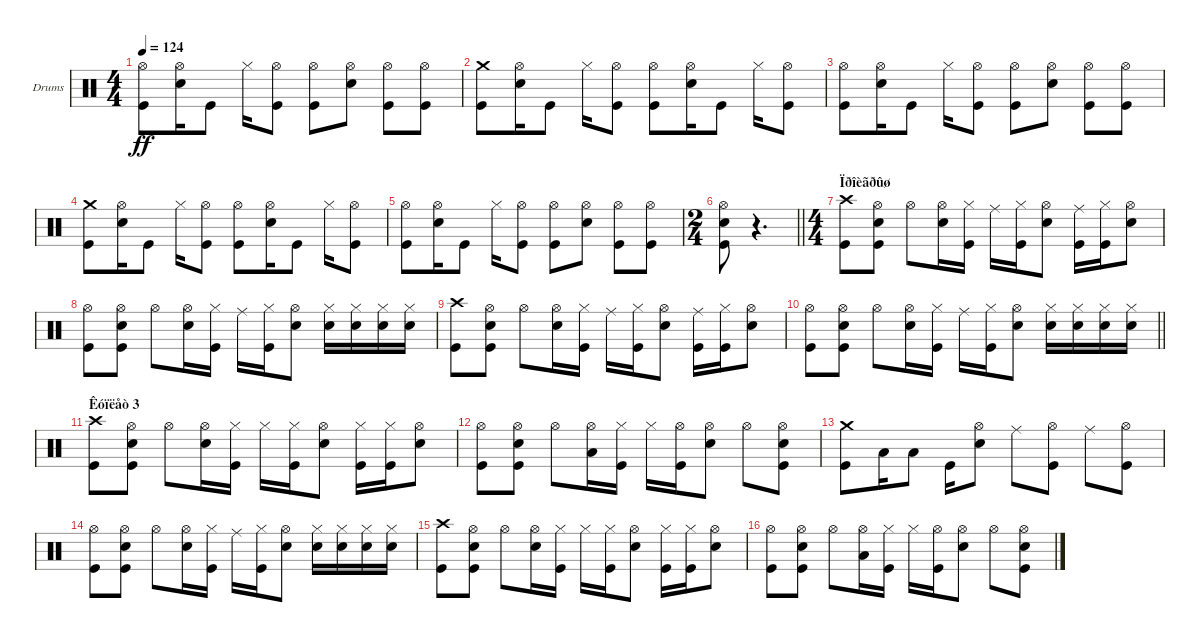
\bracketExtendMode groupsimilarinstruments
\firstSystemTrackNameOrientation horizontal
\otherSystemsTrackNameOrientation horizontal
\track ("Барабаны" "Drums") {instrument percussion}
\staff {score}
\articulation defaults
\ts (4 4)
\tempo 124
\clef neutral
\ks c
("Hi-Hat (open)" "Kick (hit)").8{dy ff} ("Hi-Hat (open)" "Snare (hit) 2").16 "Kick (hit)".8 "Hi-Hat (closed)".16 ("Hi-Hat (open)" "Kick (hit)").8 ("Kick (hit)" "Hi-Hat (open)").8 ("Hi-Hat (open)" "Snare (hit) 2").8 ("Hi-Hat (open)" "Kick (hit)").8 ("Hi-Hat (open)" "Kick (hit)").8 |
("Crash medium (hit)" "Kick (hit)").8 ("Hi-Hat (open)" "Snare (hit) 2").16 "Kick (hit)".8 "Hi-Hat (closed)".16 ("Hi-Hat (open)" "Kick (hit)").8 ("Hi-Hat (open)" "Kick (hit)").8 ("Hi-Hat (open)" "Snare (hit) 2").16 "Kick (hit)".8 "Hi-Hat (closed)".16 ("Kick (hit)" "Hi-Hat (open)").8 |
("Hi-Hat (open)" "Kick (hit)").8 ("Hi-Hat (open)" "Snare (hit) 2").16 "Kick (hit)".8 "Hi-Hat (closed)".16 ("Hi-Hat (open)" "Kick (hit)").8 ("Kick (hit)" "Hi-Hat (open)").8 ("Hi-Hat (open)" "Snare (hit) 2").8 ("Hi-Hat (open)" "Kick (hit)").8 ("Hi-Hat (open)" "Kick (hit)").8 |
("Crash medium (hit)" "Kick (hit)").8 ("Hi-Hat (open)" "Snare (hit) 2").16 "Kick (hit)".8 "Hi-Hat (closed)".16 ("Hi-Hat (open)" "Kick (hit)").8 ("Hi-Hat (open)" "Kick (hit)").8 ("Hi-Hat (open)" "Snare (hit) 2").16 "Kick (hit)".8 "Hi-Hat (closed)".16 ("Kick (hit)" "Hi-Hat (open)").8 |
("Hi-Hat (open)" "Kick (hit)").8 ("Hi-Hat (open)" "Snare (hit) 2").16 "Kick (hit)".8 "Hi-Hat (closed)".16 ("Hi-Hat (open)" "Kick (hit)").8 ("Kick (hit)" "Hi-Hat (open)").8 ("Hi-Hat (open)" "Snare (hit) 2").8 ("Hi-Hat (open)" "Kick (hit)").8 ("Hi-Hat (open)" "Kick (hit)").8 |
\ts (2 4)
\beaming (8 2 2)
\barLineRight lightlight
("Hi-Hat (open)" "Snare (hit) 2" "Kick (hit)").8 r.4{d} |
\ts (4 4)
\beaming (8 2 2 2 2)
\section ("" "Ïðîèãðûø")
("Crash high (hit)" "Kick (hit)").8 ("Hi-Hat (open)" "Kick (hit)" "Snare (hit) 2").8 "Hi-Hat (open)".8 ("Snare (hit) 2" "Hi-Hat (open)").16 ("Kick (hit)" "Hi-Hat (closed)").16 "Ride (middle)".16 ("Kick (hit)" "Hi-Hat (closed)").16 ("Snare (hit) 2" "Hi-Hat (open)").8 ("Kick (hit)" "Ride (middle)").16 ("Kick (hit)" "Hi-Hat (closed)").16 ("Snare (hit) 2" "Hi-Hat (open)").8 |
("Hi-Hat (open)" "Kick (hit)").8 ("Hi-Hat (open)" "Snare (hit) 2" "Kick (hit)").8 "Hi-Hat (open)".8 ("Snare (hit) 2" "Hi-Hat (open)").16 ("Hi-Hat (closed)" "Kick (hit)").16 "Ride (middle)".16 ("Hi-Hat (closed)" "Kick (hit)").16 ("Hi-Hat (open)" "Snare (hit) 2").8 ("Hi-Hat (closed)" "Snare (hit) 2").16 ("Hi-Hat (closed)" "Snare (hit) 2").16 ("Hi-Hat (closed)" "Snare (hit) 2").16 ("Hi-Hat (closed)" "Snare (hit) 2").16 |
("Crash high (hit)" "Kick (hit)").8 ("Hi-Hat (open)" "Kick (hit)" "Snare (hit) 2").8 "Hi-Hat (open)".8 ("Snare (hit) 2" "Hi-Hat (open)").16 ("Kick (hit)" "Hi-Hat (closed)").16 "Ride (middle)".16 ("Kick (hit)" "Hi-Hat (closed)").16 ("Snare (hit) 2" "Hi-Hat (open)").8 ("Kick (hit)" "Ride (middle)").16 ("Kick (hit)" "Hi-Hat (closed)").16 ("Snare (hit) 2" "Hi-Hat (open)").8 |
\barLineRight lightlight
("Hi-Hat (open)" "Kick (hit)").8 ("Hi-Hat (open)" "Snare (hit) 2" "Kick (hit)").8 "Hi-Hat (open)".8 ("Snare (hit) 2" "Hi-Hat (open)").16 ("Hi-Hat (closed)" "Kick (hit)").16 "Ride (middle)".16 ("Hi-Hat (closed)" "Kick (hit)").16 ("Hi-Hat (open)" "Snare (hit) 2").8 ("Hi-Hat (closed)" "Snare (hit) 2").16 ("Hi-Hat (closed)" "Snare (hit) 2").16 ("Hi-Hat (closed)" "Snare (hit) 2").16 ("Hi-Hat (closed)" "Snare (hit) 2").16 |
\section ("" "Êóïëåò 3")
("Crash high (hit)" "Kick (hit)").8 ("Hi-Hat (open)" "Snare (hit) 2" "Kick (hit)").8 "Hi-Hat (open)".8 ("Snare (hit) 2" "Hi-Hat (open)").16 ("Hi-Hat (closed)" "Kick (hit)").16 "Hi-Hat (closed)".16 ("Hi-Hat (closed)" "Kick (hit)").16 ("Hi-Hat (open)" "Snare (hit) 2").8 ("Hi-Hat (closed)" "Kick (hit)").16 ("Hi-Hat (closed)" "Kick (hit)").16 ("Hi-Hat (open)" "Snare (hit) 2").8 |
("Hi-Hat (open)" "Kick (hit)").8 ("Hi-Hat (open)" "Snare (hit) 2" "Kick (hit)").8 "Hi-Hat (open)".8 ("Hi-Hat (open)" "Low Tom (hit)").16 ("Hi-Hat (closed)" "Kick (hit)").16 "Hi-Hat (closed)".16 ("Hi-Hat (open)" "Kick (hit)").16 ("Hi-Hat (open)" "Snare (hit) 2").8 "Hi-Hat (open)".8 ("Hi-Hat (open)" "Snare (hit) 2" "Kick (hit)").8 |
("Crash medium (hit)" "Kick (hit)").8 "Low Tom (hit)".16 "Low Tom (hit)".8 "Kick (hit)".16 ("Hi-Hat (open)" "Snare (hit) 2").8 "Ride (middle)".8 ("Kick (hit)" "Hi-Hat (open)").8 "Ride (middle)".8 ("Kick (hit)" "Hi-Hat (open)").8 |
("Hi-Hat (open)" "Kick (hit)").8 ("Hi-Hat (open)" "Snare (hit) 2" "Kick (hit)").8 "Hi-Hat (open)".8 ("Snare (hit) 2" "Hi-Hat (open)").16 ("Hi-Hat (closed)" "Kick (hit)").16 "Ride (middle)".16 ("Hi-Hat (closed)" "Kick (hit)").16 ("Hi-Hat (open)" "Snare (hit) 2").8 ("Hi-Hat (closed)" "Snare (hit) 2").16 ("Hi-Hat (closed)" "Snare (hit) 2").16 ("Hi-Hat (closed)" "Snare (hit) 2").16 ("Hi-Hat (closed)" "Snare (hit) 2").16 |
("Crash high (hit)" "Kick (hit)").8 ("Hi-Hat (open)" "Snare (hit) 2" "Kick (hit)").8 "Hi-Hat (open)".8 ("Snare (hit) 2" "Hi-Hat (open)").16 ("Hi-Hat (closed)" "Kick (hit)").16 "Hi-Hat (closed)".16 ("Hi-Hat (closed)" "Kick (hit)").16 ("Hi-Hat (open)" "Snare (hit) 2").8 ("Hi-Hat (closed)" "Kick (hit)").16 ("Hi-Hat (closed)" "Kick (hit)").16 ("Hi-Hat (open)" "Snare (hit) 2").8 |
("Hi-Hat (open)" "Kick (hit)").8 ("Hi-Hat (open)" "Snare (hit) 2" "Kick (hit)").8 "Hi-Hat (open)".8 ("Hi-Hat (open)" "Low Tom (hit)").16 ("Hi-Hat (closed)" "Kick (hit)").16 "Hi-Hat (closed)".16 ("Hi-Hat (open)" "Kick (hit)").16 ("Hi-Hat (open)" "Snare (hit) 2").8 "Hi-Hat (open)".8 ("Hi-Hat (open)" "Snare (hit) 2" "Kick (hit)").8
